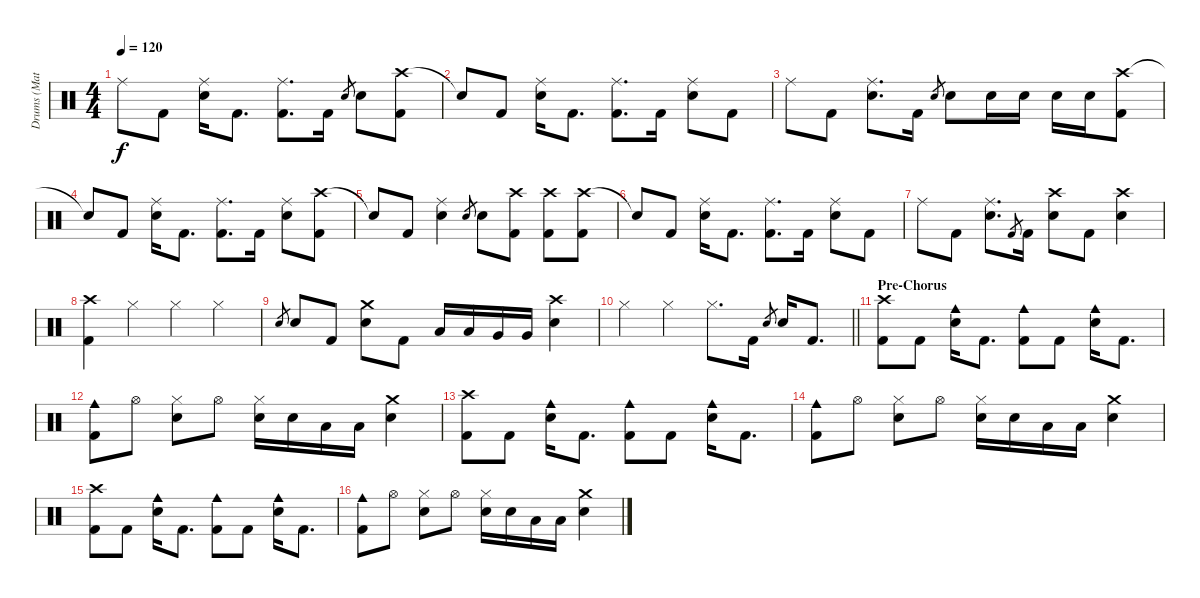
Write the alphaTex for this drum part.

\track ("Drums (Matt)" "Drums (Mat") {instrument percussion}
\staff {score}
\articulation defaults
\ts (4 4)
\tempo 120
\clef neutral
\ks c "Ride (middle)".8{dy f} "Kick (hit) 2".8
("Ride (middle)" "Snare (hit) 2").16 "Kick (hit) 2".8{d} ("Ride (middle)" "Kick (hit) 2").8{d} "Kick (hit) 2".16 "Snare (hit) 2".8{gr} "Snare (hit) 2".8 ("Crash high (hit)" "Kick (hit) 2").8 |
"Snare (hit)"{t}.8 "Kick (hit) 2".8 ("Ride (middle)" "Snare (hit) 2").16 "Kick (hit) 2".8{d} ("Ride (middle)" "Kick (hit) 2").8{d} "Kick (hit) 2".16 ("Ride (middle)" "Snare (hit) 2").8 "Kick (hit) 2".8 |
"Ride (middle)".8 "Kick (hit) 2".8 ("Ride (middle)" "Snare (hit) 2").8{d} "Kick (hit) 2".16 "Snare (hit) 2".8{gr} "Snare (hit) 2".8 "Snare (hit) 2".16 "Snare (hit) 2".16 "Snare (hit) 2".16 "Snare (hit) 2".16 ("Crash high (hit)" "Kick (hit) 2").8 |
"Snare (hit)"{t}.8 "Kick (hit) 2".8 ("Ride (middle)" "Snare (hit) 2").16 "Kick (hit) 2".8{d} ("Ride (middle)" "Kick (hit) 2").8{d} "Kick (hit) 2".16 ("Ride (middle)" "Snare (hit) 2").8 ("Crash high (hit)" "Kick (hit) 2").8 |
"Snare (hit)"{t}.8 "Kick (hit) 2".8 ("Ride (middle)" "Snare (hit) 2").4 "Snare (hit) 2".8{gr} "Snare (hit) 2".8 ("Crash high (hit)" "Kick (hit) 2").8 ("Crash high (hit)" "Kick (hit) 2").8 ("Crash high (hit)" "Kick (hit) 2").8 |
"Snare (hit)"{t}.8 "Kick (hit) 2".8 ("Ride (middle)" "Snare (hit) 2").16 "Kick (hit) 2".8{d} ("Ride (middle)" "Kick (hit) 2").8{d} "Kick (hit) 2".16 ("Ride (middle)" "Snare (hit) 2").8 "Kick (hit) 2".8 |
"Ride (middle)".8 "Kick (hit) 2".8 ("Ride (middle)" "Snare (hit) 2").8{d} "Kick (hit) 2".8{gr} "Kick (hit) 2".16 ("Crash high (hit)" "Snare (hit) 2").8 "Kick (hit) 2".8 ("Crash high (hit)" "Snare (hit) 2").4 |
("Crash high (hit)" "Kick (hit) 2").4 "Hi-Hat (closed)".4 "Hi-Hat (closed)".4 "Hi-Hat (closed)".4 |
"Snare (hit) 2".8{gr} "Snare (hit) 2".8 "Kick (hit) 2".8 ("Crash medium (hit)" "Snare (hit) 2").8 "Kick (hit) 2".8 "Low Tom (hit)".16 "Low Tom (hit)".16 "Very Low Tom (hit)".16 "Very Low Tom (hit)".16 ("Crash high (hit)" "Snare (hit) 2").4 |
\barLineRight lightlight "Hi-Hat (closed)".4 "Hi-Hat (closed)".4 "Hi-Hat (closed)".8{d} "Kick (hit) 2".16 "Snare (hit) 2".8{gr} "Snare (hit) 2".16 "Kick (hit) 2".8{d}
|
\section ("" "Pre-Chorus")
("Crash high (hit)" "Kick (hit) 2").8 "Kick (hit) 2".8 ("Cowbell medium (hit)" "Snare (hit) 2").16 "Kick (hit) 2".8{d} ("Cowbell medium (hit)" "Kick (hit) 2").8 "Kick (hit) 2".8 ("Cowbell medium (hit)" "Snare (hit) 2").16 "Kick (hit) 2".8{d} |
("Cowbell medium (hit)" "Kick (hit) 2").8 "Hi-Hat (open)".8 ("Hi-Hat (closed)" "Snare (hit) 2").8 "Hi-Hat (open)".8 ("Hi-Hat (closed)" "Snare (hit) 2").16 "Snare (hit) 2".16 "Low Tom (hit)".16 "Low Tom (hit)".16 ("Crash medium (hit)" "Snare (hit) 2").4 |
("Crash high (hit)" "Kick (hit) 2").8 "Kick (hit) 2".8 ("Cowbell medium (hit)" "Snare (hit) 2").16 "Kick (hit) 2".8{d} ("Cowbell medium (hit)" "Kick (hit) 2").8 "Kick (hit) 2".8 ("Cowbell medium (hit)" "Snare (hit) 2").16 "Kick (hit) 2".8{d} |
("Cowbell medium (hit)" "Kick (hit) 2").8 "Hi-Hat (open)".8 ("Hi-Hat (closed)" "Snare (hit) 2").8 "Hi-Hat (open)".8 ("Hi-Hat (closed)" "Snare (hit) 2").16 "Snare (hit) 2".16 "Low Tom (hit)".16 "Low Tom (hit)".16 ("Crash medium (hit)" "Snare (hit) 2").4 |
("Crash high (hit)" "Kick (hit) 2").8 "Kick (hit) 2".8 ("Cowbell medium (hit)" "Snare (hit) 2").16 "Kick (hit) 2".8{d} ("Cowbell medium (hit)" "Kick (hit) 2").8 "Kick (hit) 2".8 ("Cowbell medium (hit)" "Snare (hit) 2").16 "Kick (hit) 2".8{d} |
("Cowbell medium (hit)" "Kick (hit) 2").8 "Hi-Hat (open)".8 ("Hi-Hat (closed)" "Snare (hit) 2").8 "Hi-Hat (open)".8 ("Hi-Hat (closed)" "Snare (hit) 2").16 "Snare (hit) 2".16 "Low Tom (hit)".16 "Low Tom (hit)".16 ("Crash medium (hit)" "Snare (hit) 2").4
